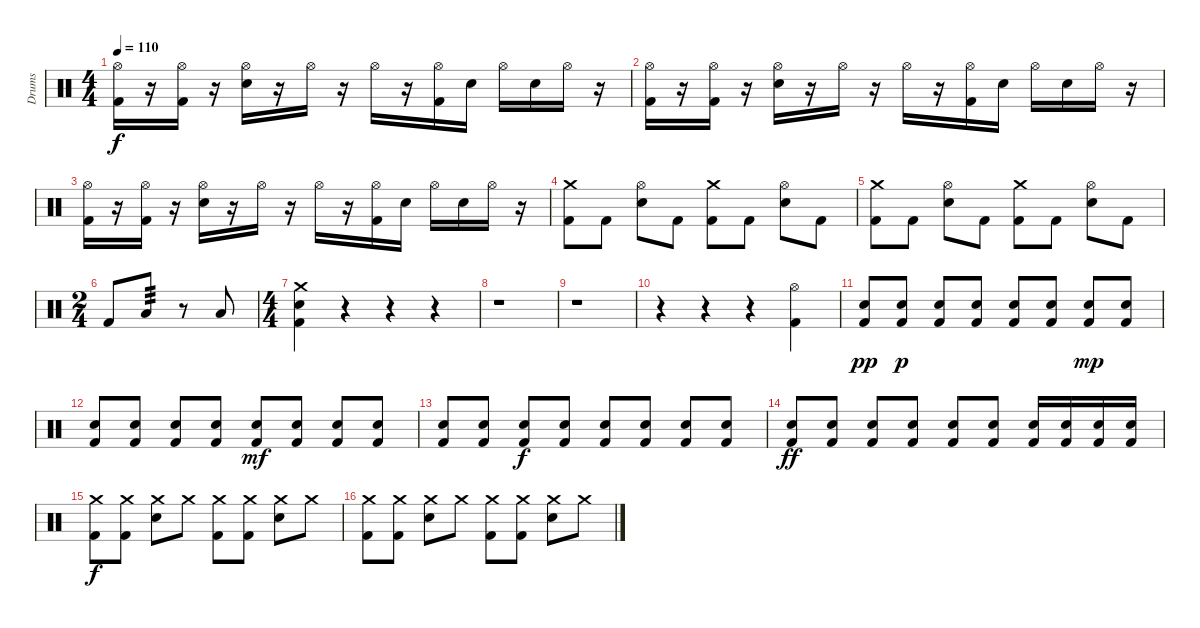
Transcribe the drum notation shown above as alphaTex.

\track ("Drums" "Drums") {instrument percussion}
\staff {score}
\articulation defaults
\ts (4 4)
\tempo 110
\clef neutral
\ks c
("Hi-Hat (open)" "Kick (hit) 2").16{dy f} r.16 ("Hi-Hat (open)" "Kick (hit) 2").16 r.16 ("Hi-Hat (open)" "Electric Snare (hit)").16 r.16 "Hi-Hat (open)".16 r.16 "Hi-Hat (open)".16 r.16 ("Hi-Hat (open)" "Kick (hit) 2").16 "Electric Snare (hit)".16 "Hi-Hat (open)".16 "Electric Snare (hit)".16 "Hi-Hat (open)".16 r.16 |
("Hi-Hat (open)" "Kick (hit) 2").16 r.16 ("Hi-Hat (open)" "Kick (hit) 2").16 r.16 ("Hi-Hat (open)" "Electric Snare (hit)").16 r.16 "Hi-Hat (open)".16 r.16 "Hi-Hat (open)".16 r.16 ("Hi-Hat (open)" "Kick (hit) 2").16 "Electric Snare (hit)".16 "Hi-Hat (open)".16 "Electric Snare (hit)".16 "Hi-Hat (open)".16 r.16 |
("Hi-Hat (open)" "Kick (hit) 2").16 r.16 ("Hi-Hat (open)" "Kick (hit) 2").16 r.16 ("Hi-Hat (open)" "Electric Snare (hit)").16 r.16 "Hi-Hat (open)".16 r.16 "Hi-Hat (open)".16 r.16 ("Hi-Hat (open)" "Kick (hit) 2").16 "Electric Snare (hit)".16 "Hi-Hat (open)".16 "Electric Snare (hit)".16 "Hi-Hat (open)".16 r.16 |
("Crash medium (hit)" "Kick (hit) 2").8 "Kick (hit) 2".8 ("Hi-Hat (open)" "Electric Snare (hit)").8 "Kick (hit) 2".8 ("Crash medium (hit)" "Kick (hit) 2").8 "Kick (hit) 2".8 ("Hi-Hat (open)" "Electric Snare (hit)").8 "Kick (hit) 2".8 |
("Crash medium (hit)" "Kick (hit) 2").8 "Kick (hit) 2".8 ("Hi-Hat (open)" "Electric Snare (hit)").8 "Kick (hit) 2".8 ("Crash medium (hit)" "Kick (hit) 2").8 "Kick (hit) 2".8 ("Hi-Hat (open)" "Electric Snare (hit)").8 "Kick (hit) 2".8 |
\ts (2 4)
"Kick (hit) 2".8 "Low Tom (hit)".8{tp 3} r.8 "Low Floor Tom (hit)".8 |
\ts (4 4)
("Crash medium (hit)" "Electric Snare (hit)" "Kick (hit) 2").4 r.4 r.4 r.4 |
r.1 |
r.1 |
r.4 r.4 r.4 ("Hi-Hat (open)" "Kick (hit) 2").4 |
("Electric Snare (hit)" "Kick (hit) 2").8{dy pp} ("Electric Snare (hit)" "Kick (hit) 2").8{dy p} ("Electric Snare (hit)" "Kick (hit) 2").8 ("Electric Snare (hit)" "Kick (hit) 2").8 ("Electric Snare (hit)" "Kick (hit) 2").8 ("Electric Snare (hit)" "Kick (hit) 2").8 ("Electric Snare (hit)" "Kick (hit) 2").8{dy mp} ("Electric Snare (hit)" "Kick (hit) 2").8 |
("Electric Snare (hit)" "Kick (hit) 2").8 ("Electric Snare (hit)" "Kick (hit) 2").8 ("Electric Snare (hit)" "Kick (hit) 2").8 ("Electric Snare (hit)" "Kick (hit) 2").8 ("Electric Snare (hit)" "Kick (hit) 2").8{dy mf} ("Electric Snare (hit)" "Kick (hit) 2").8 ("Electric Snare (hit)" "Kick (hit) 2").8 ("Electric Snare (hit)" "Kick (hit) 2").8 |
("Electric Snare (hit)" "Kick (hit) 2").8 ("Electric Snare (hit)" "Kick (hit) 2").8 ("Electric Snare (hit)" "Kick (hit) 2").8{dy f} ("Electric Snare (hit)" "Kick (hit) 2").8 ("Electric Snare (hit)" "Kick (hit) 2").8 ("Electric Snare (hit)" "Kick (hit) 2").8 ("Electric Snare (hit)" "Kick (hit) 2").8 ("Electric Snare (hit)" "Kick (hit) 2").8 |
("Electric Snare (hit)" "Kick (hit) 2").8{dy ff} ("Electric Snare (hit)" "Kick (hit) 2").8 ("Electric Snare (hit)" "Kick (hit) 2").8 ("Electric Snare (hit)" "Kick (hit) 2").8 ("Electric Snare (hit)" "Kick (hit) 2").8 ("Electric Snare (hit)" "Kick (hit) 2").8 ("Electric Snare (hit)" "Kick (hit) 2").16 ("Electric Snare (hit)" "Kick (hit) 2").16 ("Electric Snare (hit)" "Kick (hit) 2").16 ("Electric Snare (hit)" "Kick (hit) 2").16 |
("Crash medium (hit)" "Kick (hit) 2").8{dy f} ("Crash medium (hit)" "Kick (hit) 2").8 ("Crash medium (hit)" "Electric Snare (hit)").8 "Crash medium (hit)".8 ("Crash medium (hit)" "Kick (hit) 2").8 ("Crash medium (hit)" "Kick (hit) 2").8 ("Crash medium (hit)" "Electric Snare (hit)").8 "Crash medium (hit)".8 |
("Crash medium (hit)" "Kick (hit) 2").8 ("Crash medium (hit)" "Kick (hit) 2").8 ("Crash medium (hit)" "Electric Snare (hit)").8 "Crash medium (hit)".8 ("Crash medium (hit)" "Kick (hit) 2").8 ("Crash medium (hit)" "Kick (hit) 2").8 ("Crash medium (hit)" "Electric Snare (hit)").8 "Crash medium (hit)".8
